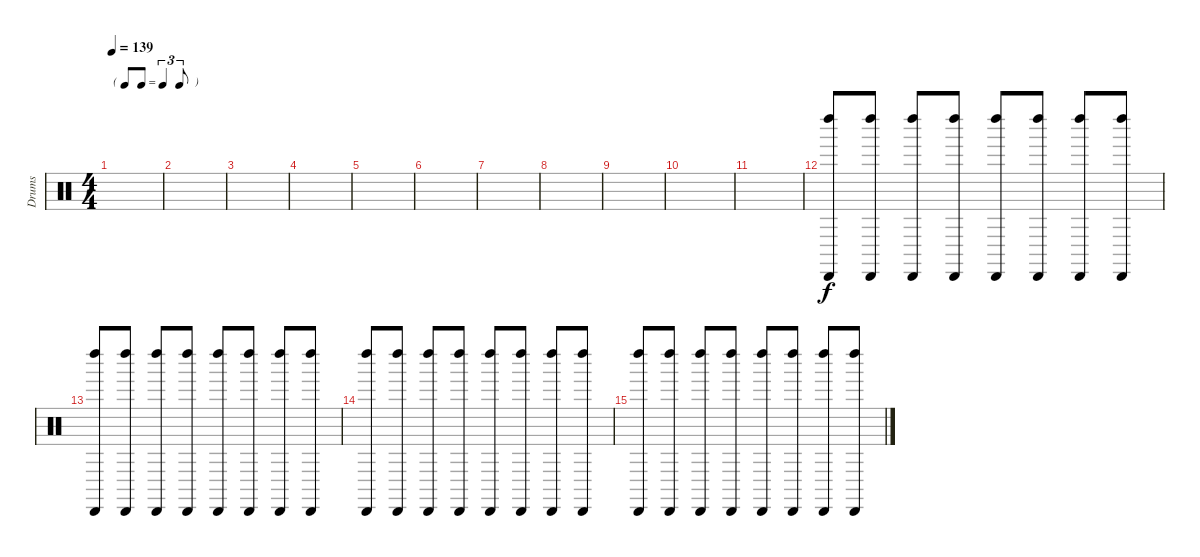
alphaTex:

\track ("Drums" "Drums") {instrument percussion}
\staff {score}
\articulation defaults
\ts (4 4)
\tf triplet8th
\tempo 139
\clef neutral
\ks c
|
|
|
|
|
|
|
|
|
|
|
("Cabasa (hit)" "Left Maraca (hit)").8 ("Cabasa (hit)" "Left Maraca (hit)").8 ("Cabasa (hit)" "Left Maraca (hit)").8 ("Cabasa (hit)" "Left Maraca (hit)").8 ("Cabasa (hit)" "Left Maraca (hit)").8 ("Cabasa (hit)" "Left Maraca (hit)").8 ("Cabasa (hit)" "Left Maraca (hit)").8 ("Cabasa (hit)" "Left Maraca (hit)").8 |
("Cabasa (hit)" "Left Maraca (hit)").8 ("Cabasa (hit)" "Left Maraca (hit)").8 ("Cabasa (hit)" "Left Maraca (hit)").8 ("Cabasa (hit)" "Left Maraca (hit)").8 ("Cabasa (hit)" "Left Maraca (hit)").8 ("Cabasa (hit)" "Left Maraca (hit)").8 ("Cabasa (hit)" "Left Maraca (hit)").8 ("Cabasa (hit)" "Left Maraca (hit)").8 |
("Cabasa (hit)" "Left Maraca (hit)").8 ("Cabasa (hit)" "Left Maraca (hit)").8 ("Cabasa (hit)" "Left Maraca (hit)").8 ("Cabasa (hit)" "Left Maraca (hit)").8 ("Cabasa (hit)" "Left Maraca (hit)").8 ("Cabasa (hit)" "Left Maraca (hit)").8 ("Cabasa (hit)" "Left Maraca (hit)").8 ("Cabasa (hit)" "Left Maraca (hit)").8 |
("Cabasa (hit)" "Left Maraca (hit)").8 ("Cabasa (hit)" "Left Maraca (hit)").8 ("Cabasa (hit)" "Left Maraca (hit)").8 ("Cabasa (hit)" "Left Maraca (hit)").8 ("Cabasa (hit)" "Left Maraca (hit)").8 ("Cabasa (hit)" "Left Maraca (hit)").8 ("Cabasa (hit)" "Left Maraca (hit)").8 ("Cabasa (hit)" "Left Maraca (hit)").8
